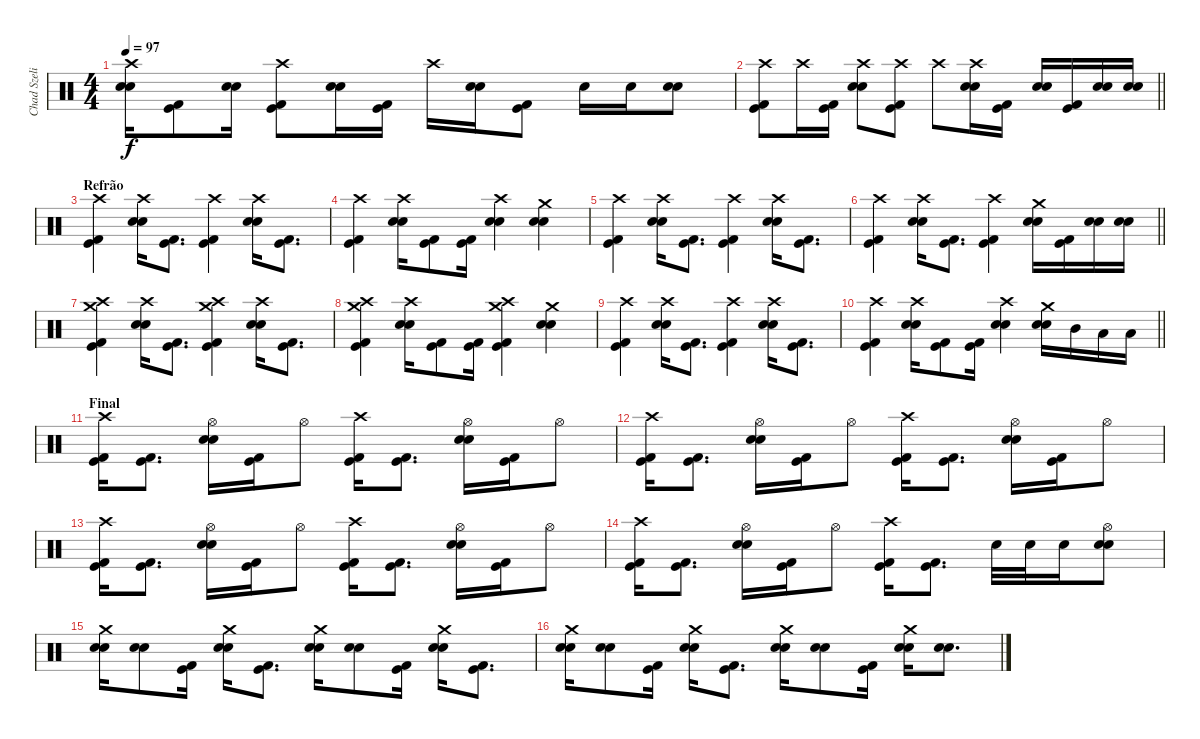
\track ("Chad Szeliga" "Chad Szeli") {instrument percussion}
\staff {score}
\articulation defaults
\ts (4 4)
\tempo 97
\clef neutral
\ks c
("Crash high (hit)" "Snare (hit) 2" "Snare (hit) 2").16{dy f} ("Kick (hit) 2" "Kick (hit)").8 ("Snare (hit) 2" "Snare (hit) 2").16 ("Crash high (hit)" "Kick (hit) 2" "Kick (hit)").8 ("Snare (hit) 2" "Snare (hit) 2").16 ("Kick (hit) 2" "Kick (hit)").16 "Crash high (hit)".16 ("Snare (hit) 2" "Snare (hit) 2").16 ("Kick (hit) 2" "Kick (hit)").8 "Snare (hit) 2".16 "Snare (hit) 2".16 ("Snare (hit) 2" "Snare (hit) 2").8 |
\barLineRight lightlight
("Crash high (hit)" "Kick (hit) 2" "Kick (hit)").8 "Crash high (hit)".16 ("Kick (hit) 2" "Kick (hit)").16 ("Crash high (hit)" "Snare (hit) 2" "Snare (hit) 2").8 ("Crash high (hit)" "Kick (hit) 2" "Kick (hit)").8 "Crash high (hit)".8 ("Crash high (hit)" "Snare (hit) 2" "Snare (hit) 2").16 ("Kick (hit) 2" "Kick (hit)").16 ("Snare (hit) 2" "Snare (hit) 2").16 ("Kick (hit) 2" "Kick (hit)").16 ("Snare (hit) 2" "Snare (hit) 2").16 ("Snare (hit) 2" "Snare (hit) 2").16 |
\section ("" "Refrão")
("Crash high (hit)" "Kick (hit) 2" "Kick (hit)").4 ("Crash high (hit)" "Snare (hit) 2" "Snare (hit) 2").16 ("Kick (hit) 2" "Kick (hit)").8{d} ("Crash high (hit)" "Kick (hit) 2" "Kick (hit)").4 ("Crash high (hit)" "Snare (hit) 2" "Snare (hit) 2").16 ("Kick (hit) 2" "Kick (hit)").8{d} |
("Crash high (hit)" "Kick (hit) 2" "Kick (hit)").4 ("Crash high (hit)" "Snare (hit) 2" "Snare (hit) 2").16 ("Kick (hit) 2" "Kick (hit)").8 ("Kick (hit) 2" "Kick (hit)").16 ("Crash high (hit)" "Snare (hit) 2" "Snare (hit) 2").4 ("Crash medium (hit)" "Snare (hit) 2" "Snare (hit) 2").4 |
("Crash high (hit)" "Kick (hit) 2" "Kick (hit)").4 ("Crash high (hit)" "Snare (hit) 2" "Snare (hit) 2").16 ("Kick (hit) 2" "Kick (hit)").8{d} ("Crash high (hit)" "Kick (hit) 2" "Kick (hit)").4 ("Crash high (hit)" "Snare (hit) 2" "Snare (hit) 2").16 ("Kick (hit) 2" "Kick (hit)").8{d} |
\barLineRight lightlight
("Crash high (hit)" "Kick (hit) 2" "Kick (hit)").4 ("Crash high (hit)" "Snare (hit) 2" "Snare (hit) 2").16 ("Kick (hit) 2" "Kick (hit)").8{d} ("Crash high (hit)" "Kick (hit) 2" "Kick (hit)").4 ("Crash medium (hit)" "Snare (hit) 2" "Snare (hit) 2").16 ("Kick (hit) 2" "Kick (hit)").16 ("Snare (hit) 2" "Snare (hit) 2").16 ("Snare (hit) 2" "Snare (hit) 2").16 |
("Crash high (hit)" "Kick (hit) 2" "Kick (hit)" "Crash medium (hit)").4 ("Crash high (hit)" "Snare (hit) 2" "Snare (hit) 2").16 ("Kick (hit) 2" "Kick (hit)").8{d} ("Crash high (hit)" "Kick (hit) 2" "Kick (hit)" "Crash medium (hit)").4 ("Crash high (hit)" "Snare (hit) 2" "Snare (hit) 2").16 ("Kick (hit) 2" "Kick (hit)").8{d} |
("Crash high (hit)" "Kick (hit) 2" "Kick (hit)" "Crash medium (hit)").4 ("Crash high (hit)" "Snare (hit) 2" "Snare (hit) 2").16 ("Kick (hit) 2" "Kick (hit)").8 ("Kick (hit) 2" "Kick (hit)").16 ("Crash high (hit)" "Kick (hit) 2" "Kick (hit)" "Crash medium (hit)").4 ("Crash medium (hit)" "Snare (hit) 2" "Snare (hit) 2").4 |
("Crash high (hit)" "Kick (hit) 2" "Kick (hit)").4 ("Crash high (hit)" "Snare (hit) 2" "Snare (hit) 2").16 ("Kick (hit) 2" "Kick (hit)").8{d} ("Crash high (hit)" "Kick (hit) 2" "Kick (hit)").4 ("Crash high (hit)" "Snare (hit) 2" "Snare (hit) 2").16 ("Kick (hit) 2" "Kick (hit)").8{d} |
\barLineRight lightlight
("Crash high (hit)" "Kick (hit) 2" "Kick (hit)").4 ("Crash high (hit)" "Snare (hit) 2" "Snare (hit) 2").16 ("Kick (hit) 2" "Kick (hit)").8 ("Kick (hit) 2" "Kick (hit)").16 ("Crash high (hit)" "Snare (hit) 2" "Snare (hit) 2").4 ("Crash medium (hit)" "Snare (hit) 2" "Snare (hit) 2").16 "Mid Tom (hit)".16 "Low Tom (hit)".16 "Low Tom (hit)".16 |
\section ("" "Final")
("Crash high (hit)" "Kick (hit) 2" "Kick (hit)").16 ("Kick (hit) 2" "Kick (hit)").8{d} ("Snare (hit) 2" "Snare (hit) 2" "Hi-Hat (open)").16 ("Kick (hit) 2" "Kick (hit)").16 "Hi-Hat (open)".8 ("Crash high (hit)" "Kick (hit) 2" "Kick (hit)").16 ("Kick (hit) 2" "Kick (hit)").8{d} ("Snare (hit) 2" "Snare (hit) 2" "Hi-Hat (open)").16 ("Kick (hit) 2" "Kick (hit)").16 "Hi-Hat (open)".8 |
("Crash high (hit)" "Kick (hit) 2" "Kick (hit)").16 ("Kick (hit) 2" "Kick (hit)").8{d} ("Snare (hit) 2" "Snare (hit) 2" "Hi-Hat (open)").16 ("Kick (hit) 2" "Kick (hit)").16 "Hi-Hat (open)".8 ("Crash high (hit)" "Kick (hit) 2" "Kick (hit)").16 ("Kick (hit) 2" "Kick (hit)").8{d} ("Snare (hit) 2" "Snare (hit) 2" "Hi-Hat (open)").16 ("Kick (hit) 2" "Kick (hit)").16 "Hi-Hat (open)".8 |
("Crash high (hit)" "Kick (hit) 2" "Kick (hit)").16 ("Kick (hit) 2" "Kick (hit)").8{d} ("Snare (hit) 2" "Snare (hit) 2" "Hi-Hat (open)").16 ("Kick (hit) 2" "Kick (hit)").16 "Hi-Hat (open)".8 ("Crash high (hit)" "Kick (hit) 2" "Kick (hit)").16 ("Kick (hit) 2" "Kick (hit)").8{d} ("Snare (hit) 2" "Snare (hit) 2" "Hi-Hat (open)").16 ("Kick (hit) 2" "Kick (hit)").16 "Hi-Hat (open)".8 |
("Crash high (hit)" "Kick (hit) 2" "Kick (hit)").16 ("Kick (hit) 2" "Kick (hit)").8{d} ("Snare (hit) 2" "Snare (hit) 2" "Hi-Hat (open)").16 ("Kick (hit) 2" "Kick (hit)").16 "Hi-Hat (open)".8 ("Crash high (hit)" "Kick (hit) 2" "Kick (hit)").16 ("Kick (hit) 2" "Kick (hit)").8{d} "Snare (hit) 2".32 "Snare (hit) 2".32 "Snare (hit) 2".16 ("Snare (hit) 2" "Snare (hit) 2" "Hi-Hat (open)").8 |
("Crash medium (hit)" "Snare (hit) 2" "Snare (hit) 2").16 ("Snare (hit) 2" "Snare (hit) 2").8 ("Kick (hit) 2" "Kick (hit)").16 ("Crash medium (hit)" "Snare (hit) 2" "Snare (hit) 2").16 ("Kick (hit) 2" "Kick (hit)").8{d} ("Crash medium (hit)" "Snare (hit) 2" "Snare (hit) 2").16 ("Snare (hit) 2" "Snare (hit) 2").8 ("Kick (hit) 2" "Kick (hit)").16 ("Crash medium (hit)" "Snare (hit) 2" "Snare (hit) 2").16 ("Kick (hit) 2" "Kick (hit)").8{d} |
("Crash medium (hit)" "Snare (hit) 2" "Snare (hit) 2").16 ("Snare (hit) 2" "Snare (hit) 2").8 ("Kick (hit) 2" "Kick (hit)").16 ("Crash medium (hit)" "Snare (hit) 2" "Snare (hit) 2").16 ("Kick (hit) 2" "Kick (hit)").8{d} ("Crash medium (hit)" "Snare (hit) 2" "Snare (hit) 2").16 ("Snare (hit) 2" "Snare (hit) 2").8 ("Kick (hit) 2" "Kick (hit)").16 ("Crash medium (hit)" "Snare (hit) 2" "Snare (hit) 2").16 ("Snare (hit) 2" "Snare (hit) 2").8{d}
